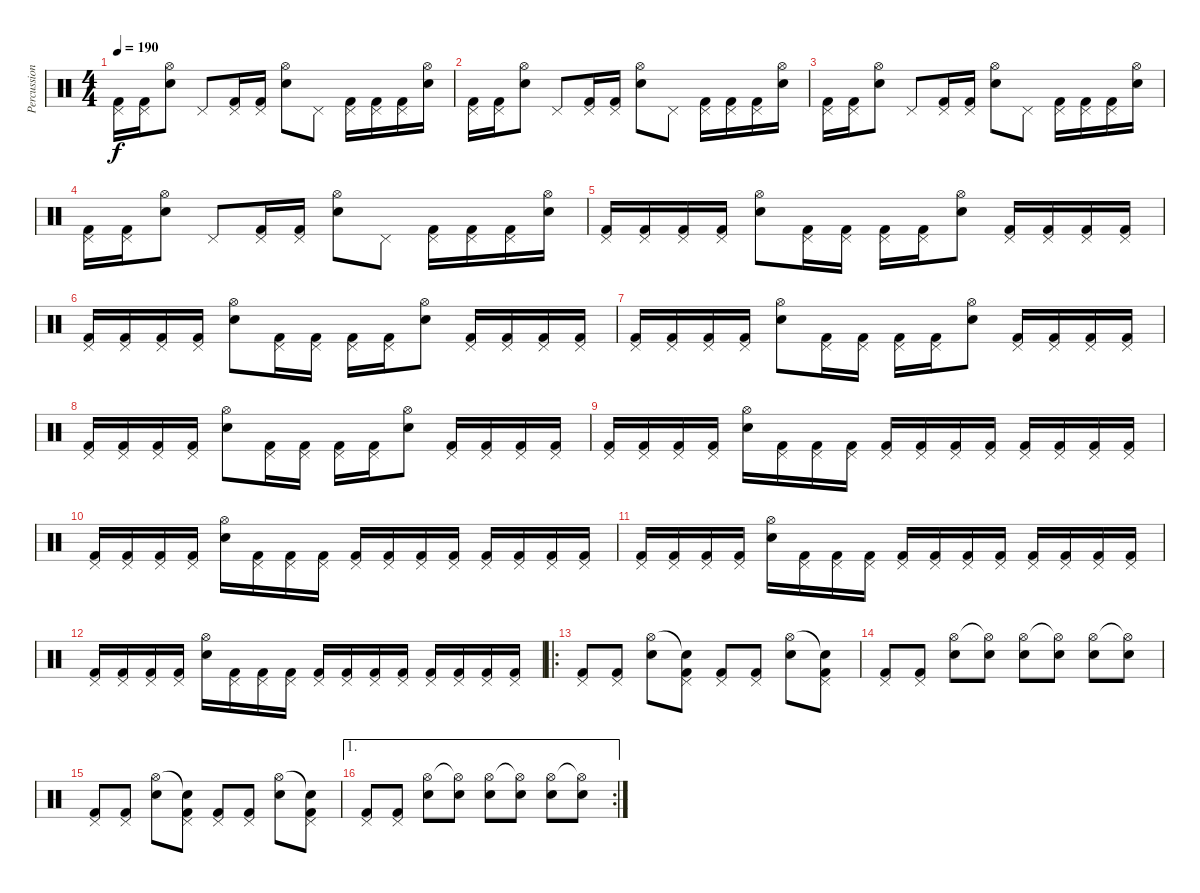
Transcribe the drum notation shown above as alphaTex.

\track ("Percussion" "Percussion") {instrument percussion}
\staff {score}
\articulation defaults
\ts (4 4)
\tempo 190
\clef neutral
\ks c
("Pedal Hi-Hat (hit)" "Kick (hit) 2").16{dy f} ("Pedal Hi-Hat (hit)" "Kick (hit) 2").16 ("Hi-Hat (open)" "Snare (hit) 2").8 "Pedal Hi-Hat (hit)".8 ("Pedal Hi-Hat (hit)" "Kick (hit) 2").16 ("Pedal Hi-Hat (hit)" "Kick (hit) 2").16 ("Hi-Hat (open)" "Snare (hit) 2").8 "Pedal Hi-Hat (hit)".8 ("Pedal Hi-Hat (hit)" "Kick (hit) 2").16 ("Pedal Hi-Hat (hit)" "Kick (hit) 2").16 ("Pedal Hi-Hat (hit)" "Kick (hit) 2").16 ("Hi-Hat (open)" "Snare (hit) 2").16 |
("Pedal Hi-Hat (hit)" "Kick (hit) 2").16 ("Pedal Hi-Hat (hit)" "Kick (hit) 2").16 ("Hi-Hat (open)" "Snare (hit) 2").8 "Pedal Hi-Hat (hit)".8 ("Pedal Hi-Hat (hit)" "Kick (hit) 2").16 ("Pedal Hi-Hat (hit)" "Kick (hit) 2").16 ("Hi-Hat (open)" "Snare (hit) 2").8 "Pedal Hi-Hat (hit)".8 ("Pedal Hi-Hat (hit)" "Kick (hit) 2").16 ("Pedal Hi-Hat (hit)" "Kick (hit) 2").16 ("Pedal Hi-Hat (hit)" "Kick (hit) 2").16 ("Hi-Hat (open)" "Snare (hit) 2").16 |
("Pedal Hi-Hat (hit)" "Kick (hit) 2").16 ("Pedal Hi-Hat (hit)" "Kick (hit) 2").16 ("Hi-Hat (open)" "Snare (hit) 2").8 "Pedal Hi-Hat (hit)".8 ("Pedal Hi-Hat (hit)" "Kick (hit) 2").16 ("Pedal Hi-Hat (hit)" "Kick (hit) 2").16 ("Hi-Hat (open)" "Snare (hit) 2").8 "Pedal Hi-Hat (hit)".8 ("Pedal Hi-Hat (hit)" "Kick (hit) 2").16 ("Pedal Hi-Hat (hit)" "Kick (hit) 2").16 ("Pedal Hi-Hat (hit)" "Kick (hit) 2").16 ("Hi-Hat (open)" "Snare (hit) 2").16 |
("Pedal Hi-Hat (hit)" "Kick (hit) 2").16 ("Pedal Hi-Hat (hit)" "Kick (hit) 2").16 ("Hi-Hat (open)" "Snare (hit) 2").8 "Pedal Hi-Hat (hit)".8 ("Pedal Hi-Hat (hit)" "Kick (hit) 2").16 ("Pedal Hi-Hat (hit)" "Kick (hit) 2").16 ("Hi-Hat (open)" "Snare (hit) 2").8 "Pedal Hi-Hat (hit)".8 ("Pedal Hi-Hat (hit)" "Kick (hit) 2").16 ("Pedal Hi-Hat (hit)" "Kick (hit) 2").16 ("Pedal Hi-Hat (hit)" "Kick (hit) 2").16 ("Hi-Hat (open)" "Snare (hit) 2").16 |
("Pedal Hi-Hat (hit)" "Kick (hit) 2").16 ("Pedal Hi-Hat (hit)" "Kick (hit) 2").16 ("Pedal Hi-Hat (hit)" "Kick (hit) 2").16 ("Pedal Hi-Hat (hit)" "Kick (hit) 2").16 ("Hi-Hat (open)" "Snare (hit) 2").8 ("Pedal Hi-Hat (hit)" "Kick (hit) 2").16 ("Pedal Hi-Hat (hit)" "Kick (hit) 2").16 ("Pedal Hi-Hat (hit)" "Kick (hit) 2").16 ("Pedal Hi-Hat (hit)" "Kick (hit) 2").16 ("Hi-Hat (open)" "Snare (hit) 2").8 ("Pedal Hi-Hat (hit)" "Kick (hit) 2").16 ("Pedal Hi-Hat (hit)" "Kick (hit) 2").16 ("Pedal Hi-Hat (hit)" "Kick (hit) 2").16 ("Pedal Hi-Hat (hit)" "Kick (hit) 2").16 |
("Pedal Hi-Hat (hit)" "Kick (hit) 2").16 ("Pedal Hi-Hat (hit)" "Kick (hit) 2").16 ("Pedal Hi-Hat (hit)" "Kick (hit) 2").16 ("Pedal Hi-Hat (hit)" "Kick (hit) 2").16 ("Hi-Hat (open)" "Snare (hit) 2").8 ("Pedal Hi-Hat (hit)" "Kick (hit) 2").16 ("Pedal Hi-Hat (hit)" "Kick (hit) 2").16 ("Pedal Hi-Hat (hit)" "Kick (hit) 2").16 ("Pedal Hi-Hat (hit)" "Kick (hit) 2").16 ("Hi-Hat (open)" "Snare (hit) 2").8 ("Pedal Hi-Hat (hit)" "Kick (hit) 2").16 ("Pedal Hi-Hat (hit)" "Kick (hit) 2").16 ("Pedal Hi-Hat (hit)" "Kick (hit) 2").16 ("Pedal Hi-Hat (hit)" "Kick (hit) 2").16 |
("Pedal Hi-Hat (hit)" "Kick (hit) 2").16 ("Pedal Hi-Hat (hit)" "Kick (hit) 2").16 ("Pedal Hi-Hat (hit)" "Kick (hit) 2").16 ("Pedal Hi-Hat (hit)" "Kick (hit) 2").16 ("Hi-Hat (open)" "Snare (hit) 2").8 ("Pedal Hi-Hat (hit)" "Kick (hit) 2").16 ("Pedal Hi-Hat (hit)" "Kick (hit) 2").16 ("Pedal Hi-Hat (hit)" "Kick (hit) 2").16 ("Pedal Hi-Hat (hit)" "Kick (hit) 2").16 ("Hi-Hat (open)" "Snare (hit) 2").8 ("Pedal Hi-Hat (hit)" "Kick (hit) 2").16 ("Pedal Hi-Hat (hit)" "Kick (hit) 2").16 ("Pedal Hi-Hat (hit)" "Kick (hit) 2").16 ("Pedal Hi-Hat (hit)" "Kick (hit) 2").16 |
("Pedal Hi-Hat (hit)" "Kick (hit) 2").16 ("Pedal Hi-Hat (hit)" "Kick (hit) 2").16 ("Pedal Hi-Hat (hit)" "Kick (hit) 2").16 ("Pedal Hi-Hat (hit)" "Kick (hit) 2").16 ("Hi-Hat (open)" "Snare (hit) 2").8 ("Pedal Hi-Hat (hit)" "Kick (hit) 2").16 ("Pedal Hi-Hat (hit)" "Kick (hit) 2").16 ("Pedal Hi-Hat (hit)" "Kick (hit) 2").16 ("Pedal Hi-Hat (hit)" "Kick (hit) 2").16 ("Hi-Hat (open)" "Snare (hit) 2").8 ("Pedal Hi-Hat (hit)" "Kick (hit) 2").16 ("Pedal Hi-Hat (hit)" "Kick (hit) 2").16 ("Pedal Hi-Hat (hit)" "Kick (hit) 2").16 ("Pedal Hi-Hat (hit)" "Kick (hit) 2").16 |
("Pedal Hi-Hat (hit)" "Kick (hit) 2").16 ("Pedal Hi-Hat (hit)" "Kick (hit) 2").16 ("Pedal Hi-Hat (hit)" "Kick (hit) 2").16 ("Pedal Hi-Hat (hit)" "Kick (hit) 2").16 ("Hi-Hat (open)" "Snare (hit) 2").16 ("Pedal Hi-Hat (hit)" "Kick (hit) 2").16 ("Pedal Hi-Hat (hit)" "Kick (hit) 2").16 ("Pedal Hi-Hat (hit)" "Kick (hit) 2").16 ("Pedal Hi-Hat (hit)" "Kick (hit) 2").16 ("Pedal Hi-Hat (hit)" "Kick (hit) 2").16 ("Pedal Hi-Hat (hit)" "Kick (hit) 2").16 ("Pedal Hi-Hat (hit)" "Kick (hit) 2").16 ("Pedal Hi-Hat (hit)" "Kick (hit) 2").16 ("Pedal Hi-Hat (hit)" "Kick (hit) 2").16 ("Pedal Hi-Hat (hit)" "Kick (hit) 2").16 ("Pedal Hi-Hat (hit)" "Kick (hit) 2").16 |
("Pedal Hi-Hat (hit)" "Kick (hit) 2").16 ("Pedal Hi-Hat (hit)" "Kick (hit) 2").16 ("Pedal Hi-Hat (hit)" "Kick (hit) 2").16 ("Pedal Hi-Hat (hit)" "Kick (hit) 2").16 ("Hi-Hat (open)" "Snare (hit) 2").16 ("Pedal Hi-Hat (hit)" "Kick (hit) 2").16 ("Pedal Hi-Hat (hit)" "Kick (hit) 2").16 ("Pedal Hi-Hat (hit)" "Kick (hit) 2").16 ("Pedal Hi-Hat (hit)" "Kick (hit) 2").16 ("Pedal Hi-Hat (hit)" "Kick (hit) 2").16 ("Pedal Hi-Hat (hit)" "Kick (hit) 2").16 ("Pedal Hi-Hat (hit)" "Kick (hit) 2").16 ("Pedal Hi-Hat (hit)" "Kick (hit) 2").16 ("Pedal Hi-Hat (hit)" "Kick (hit) 2").16 ("Pedal Hi-Hat (hit)" "Kick (hit) 2").16 ("Pedal Hi-Hat (hit)" "Kick (hit) 2").16 |
("Pedal Hi-Hat (hit)" "Kick (hit) 2").16 ("Pedal Hi-Hat (hit)" "Kick (hit) 2").16 ("Pedal Hi-Hat (hit)" "Kick (hit) 2").16 ("Pedal Hi-Hat (hit)" "Kick (hit) 2").16 ("Hi-Hat (open)" "Snare (hit) 2").16 ("Pedal Hi-Hat (hit)" "Kick (hit) 2").16 ("Pedal Hi-Hat (hit)" "Kick (hit) 2").16 ("Pedal Hi-Hat (hit)" "Kick (hit) 2").16 ("Pedal Hi-Hat (hit)" "Kick (hit) 2").16 ("Pedal Hi-Hat (hit)" "Kick (hit) 2").16 ("Pedal Hi-Hat (hit)" "Kick (hit) 2").16 ("Pedal Hi-Hat (hit)" "Kick (hit) 2").16 ("Pedal Hi-Hat (hit)" "Kick (hit) 2").16 ("Pedal Hi-Hat (hit)" "Kick (hit) 2").16 ("Pedal Hi-Hat (hit)" "Kick (hit) 2").16 ("Pedal Hi-Hat (hit)" "Kick (hit) 2").16 |
("Pedal Hi-Hat (hit)" "Kick (hit) 2").16 ("Pedal Hi-Hat (hit)" "Kick (hit) 2").16 ("Pedal Hi-Hat (hit)" "Kick (hit) 2").16 ("Pedal Hi-Hat (hit)" "Kick (hit) 2").16 ("Hi-Hat (open)" "Snare (hit) 2").16 ("Pedal Hi-Hat (hit)" "Kick (hit) 2").16 ("Pedal Hi-Hat (hit)" "Kick (hit) 2").16 ("Pedal Hi-Hat (hit)" "Kick (hit) 2").16 ("Pedal Hi-Hat (hit)" "Kick (hit) 2").16 ("Pedal Hi-Hat (hit)" "Kick (hit) 2").16 ("Pedal Hi-Hat (hit)" "Kick (hit) 2").16 ("Pedal Hi-Hat (hit)" "Kick (hit) 2").16 ("Pedal Hi-Hat (hit)" "Kick (hit) 2").16 ("Pedal Hi-Hat (hit)" "Kick (hit) 2").16 ("Pedal Hi-Hat (hit)" "Kick (hit) 2").16 ("Pedal Hi-Hat (hit)" "Kick (hit) 2").16 |
\ro
("Pedal Hi-Hat (hit)" "Kick (hit) 2").8 ("Pedal Hi-Hat (hit)" "Kick (hit) 2").8 ("Hi-Hat (open)" "Snare (hit) 2").8 ("Snare (hit)"{t} "Pedal Hi-Hat (hit)" "Kick (hit) 2").8 ("Pedal Hi-Hat (hit)" "Kick (hit) 2").8 ("Pedal Hi-Hat (hit)" "Kick (hit) 2").8 ("Hi-Hat (open)" "Snare (hit) 2").8 ("Snare (hit)"{t} "Pedal Hi-Hat (hit)" "Kick (hit) 2").8 |
("Pedal Hi-Hat (hit)" "Kick (hit) 2").8 ("Pedal Hi-Hat (hit)" "Kick (hit) 2").8 ("Hi-Hat (open)" "Snare (hit) 2").8 ("Hi-Hat (open)"{t} "Snare (hit) 2").8 ("Hi-Hat (open)" "Snare (hit) 2").8 ("Hi-Hat (open)"{t} "Snare (hit) 2").8 ("Hi-Hat (open)" "Snare (hit) 2").8 ("Hi-Hat (open)"{t} "Snare (hit) 2").8 |
("Pedal Hi-Hat (hit)" "Kick (hit) 2").8 ("Pedal Hi-Hat (hit)" "Kick (hit) 2").8 ("Hi-Hat (open)" "Snare (hit) 2").8 ("Snare (hit)"{t} "Pedal Hi-Hat (hit)" "Kick (hit) 2").8 ("Pedal Hi-Hat (hit)" "Kick (hit) 2").8 ("Pedal Hi-Hat (hit)" "Kick (hit) 2").8 ("Hi-Hat (open)" "Snare (hit) 2").8 ("Snare (hit)"{t} "Pedal Hi-Hat (hit)" "Kick (hit) 2").8 |
\ae 1
\rc 2
("Pedal Hi-Hat (hit)" "Kick (hit) 2").8 ("Pedal Hi-Hat (hit)" "Kick (hit) 2").8 ("Hi-Hat (open)" "Snare (hit) 2").8 ("Hi-Hat (open)"{t} "Snare (hit) 2").8 ("Hi-Hat (open)" "Snare (hit) 2").8 ("Hi-Hat (open)"{t} "Snare (hit) 2").8 ("Hi-Hat (open)" "Snare (hit) 2").8 ("Hi-Hat (open)"{t} "Snare (hit) 2").8
